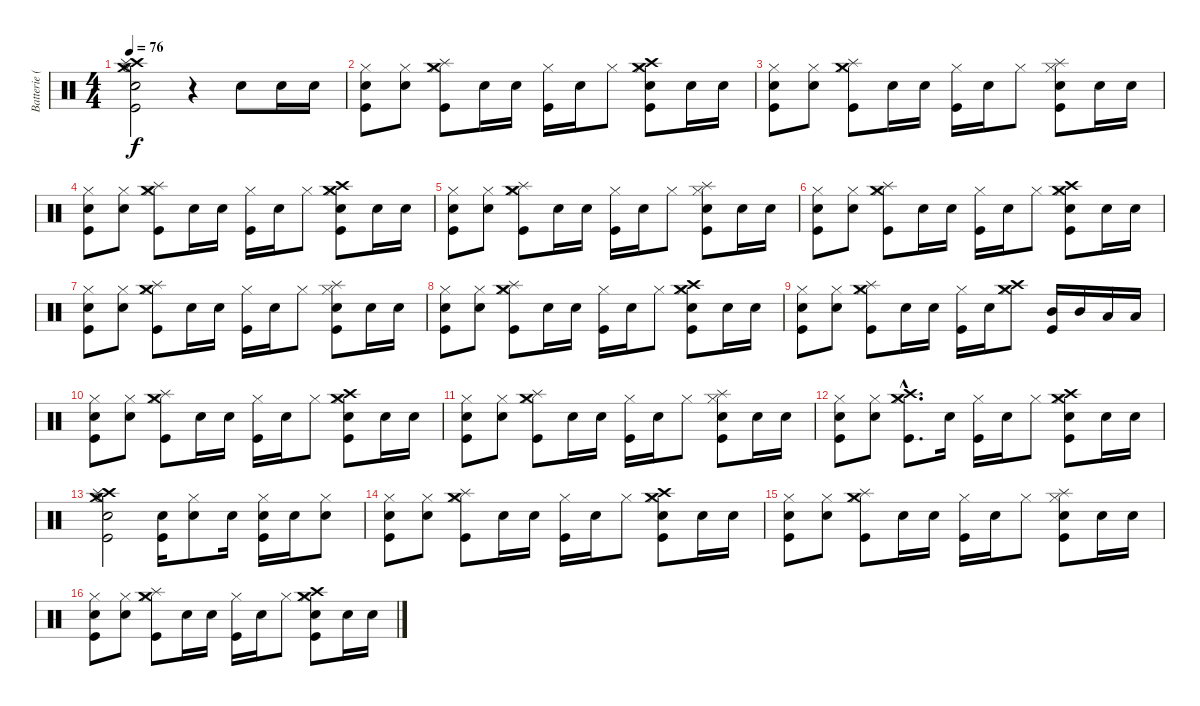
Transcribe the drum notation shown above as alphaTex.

\track ("Batterie (Caroline Corr)" "Batterie (") {instrument percussion}
\staff {score}
\articulation defaults
\ts (4 4)
\tempo 76
\clef neutral
\ks c
("Hi-Hat (open)" "Crash medium (hit)" "Crash high (hit)" "Snare (hit) 2" "Splash (hit)" "Kick (hit)").2{dy f} r.4 "Snare (hit) 2".8 "Snare (hit) 2".16 "Snare (hit) 2".16 |
("Hi-Hat (closed)" "Snare (hit) 2" "Kick (hit)").8 ("Hi-Hat (closed)" "Snare (hit) 2").8 ("Hi-Hat (closed)" "Splash (hit)" "Crash medium (hit)" "Kick (hit)").8 "Snare (hit) 2".16 "Snare (hit) 2".16 ("Hi-Hat (closed)" "Kick (hit)").16 "Snare (hit) 2".16 "Hi-Hat (closed)".8 ("Hi-Hat (closed)" "Snare (hit) 2" "Crash high (hit)" "Crash medium (hit)" "Kick (hit)").8 "Snare (hit) 2".16 "Snare (hit) 2".16 |
("Hi-Hat (closed)" "Snare (hit) 2" "Kick (hit)").8 ("Hi-Hat (closed)" "Snare (hit) 2").8 ("Hi-Hat (closed)" "Splash (hit)" "Crash medium (hit)" "Kick (hit)").8 "Snare (hit) 2".16 "Snare (hit) 2".16 ("Hi-Hat (closed)" "Kick (hit)").16 "Snare (hit) 2".16 "Hi-Hat (closed)".8 ("Hi-Hat (closed)" "Snare (hit) 2" "Splash (hit)" "Kick (hit)").8 "Snare (hit) 2".16 "Snare (hit) 2".16 |
("Hi-Hat (closed)" "Snare (hit) 2" "Kick (hit)").8 ("Hi-Hat (closed)" "Snare (hit) 2").8 ("Hi-Hat (closed)" "Splash (hit)" "Crash medium (hit)" "Kick (hit)").8 "Snare (hit) 2".16 "Snare (hit) 2".16 ("Hi-Hat (closed)" "Kick (hit)").16 "Snare (hit) 2".16 "Hi-Hat (closed)".8 ("Hi-Hat (closed)" "Snare (hit) 2" "Crash high (hit)" "Crash medium (hit)" "Kick (hit)").8 "Snare (hit) 2".16 "Snare (hit) 2".16 |
("Hi-Hat (closed)" "Snare (hit) 2" "Kick (hit)").8 ("Hi-Hat (closed)" "Snare (hit) 2").8 ("Hi-Hat (closed)" "Splash (hit)" "Crash medium (hit)" "Kick (hit)").8 "Snare (hit) 2".16 "Snare (hit) 2".16 ("Hi-Hat (closed)" "Kick (hit)").16 "Snare (hit) 2".16 "Hi-Hat (closed)".8 ("Hi-Hat (closed)" "Snare (hit) 2" "Splash (hit)" "Kick (hit)").8 "Snare (hit) 2".16 "Snare (hit) 2".16 |
("Hi-Hat (closed)" "Snare (hit) 2" "Kick (hit)").8 ("Hi-Hat (closed)" "Snare (hit) 2").8 ("Hi-Hat (closed)" "Splash (hit)" "Crash medium (hit)" "Kick (hit)").8 "Snare (hit) 2".16 "Snare (hit) 2".16 ("Hi-Hat (closed)" "Kick (hit)").16 "Snare (hit) 2".16 "Hi-Hat (closed)".8 ("Hi-Hat (closed)" "Snare (hit) 2" "Crash high (hit)" "Crash medium (hit)" "Kick (hit)").8 "Snare (hit) 2".16 "Snare (hit) 2".16 |
("Hi-Hat (closed)" "Snare (hit) 2" "Kick (hit)").8 ("Hi-Hat (closed)" "Snare (hit) 2").8 ("Hi-Hat (closed)" "Splash (hit)" "Crash medium (hit)" "Kick (hit)").8 "Snare (hit) 2".16 "Snare (hit) 2".16 ("Hi-Hat (closed)" "Kick (hit)").16 "Snare (hit) 2".16 "Hi-Hat (closed)".8 ("Hi-Hat (closed)" "Snare (hit) 2" "Splash (hit)" "Kick (hit)").8 "Snare (hit) 2".16 "Snare (hit) 2".16 |
("Hi-Hat (closed)" "Snare (hit) 2" "Kick (hit)").8 ("Hi-Hat (closed)" "Snare (hit) 2").8 ("Hi-Hat (closed)" "Splash (hit)" "Crash medium (hit)" "Kick (hit)").8 "Snare (hit) 2".16 "Snare (hit) 2".16 ("Hi-Hat (closed)" "Kick (hit)").16 "Snare (hit) 2".16 "Hi-Hat (closed)".8 ("Hi-Hat (closed)" "Snare (hit) 2" "Crash high (hit)" "Crash medium (hit)" "Kick (hit)").8 "Snare (hit) 2".16 "Snare (hit) 2".16 |
("Hi-Hat (closed)" "Snare (hit) 2" "Kick (hit)").8 ("Hi-Hat (closed)" "Snare (hit) 2").8 ("Hi-Hat (closed)" "Splash (hit)" "Crash medium (hit)" "Kick (hit)").8 "Snare (hit) 2".16 "Snare (hit) 2".16 ("Hi-Hat (closed)" "Kick (hit)").16 "Snare (hit) 2".16 ("Hi-Hat (closed)" "Crash medium (hit)" "Crash high (hit)").8 ("Mid Tom (hit)" "Kick (hit)").16 "Mid Tom (hit)".16 "Low Tom (hit)".16 "Low Tom (hit)".16 |
("Hi-Hat (closed)" "Snare (hit) 2" "Kick (hit)").8 ("Hi-Hat (closed)" "Snare (hit) 2").8 ("Hi-Hat (closed)" "Splash (hit)" "Crash medium (hit)" "Kick (hit)").8 "Snare (hit) 2".16 "Snare (hit) 2".16 ("Hi-Hat (closed)" "Kick (hit)").16 "Snare (hit) 2".16 "Hi-Hat (closed)".8 ("Hi-Hat (closed)" "Snare (hit) 2" "Crash high (hit)" "Crash medium (hit)" "Kick (hit)").8 "Snare (hit) 2".16 "Snare (hit) 2".16 |
("Hi-Hat (closed)" "Snare (hit) 2" "Kick (hit)").8 ("Hi-Hat (closed)" "Snare (hit) 2").8 ("Hi-Hat (closed)" "Splash (hit)" "Crash medium (hit)" "Kick (hit)").8 "Snare (hit) 2".16 "Snare (hit) 2".16 ("Hi-Hat (closed)" "Kick (hit)").16 "Snare (hit) 2".16 "Hi-Hat (closed)".8 ("Hi-Hat (closed)" "Snare (hit) 2" "Splash (hit)" "Kick (hit)").8 "Snare (hit) 2".16 "Snare (hit) 2".16 |
("Hi-Hat (closed)" "Snare (hit) 2" "Kick (hit)").8 ("Hi-Hat (closed)" "Snare (hit) 2").8 ("Hi-Hat (closed)"{hac} "Crash high (hit)"{hac} "Crash medium (hit)"{hac} "Kick (hit)"{hac}).8{d} "Snare (hit) 2".16 ("Hi-Hat (closed)" "Kick (hit)").16 "Snare (hit) 2".16 "Hi-Hat (closed)".8 ("Hi-Hat (closed)" "Snare (hit) 2" "Crash high (hit)" "Crash medium (hit)" "Kick (hit)").8 "Snare (hit) 2".16 "Snare (hit) 2".16 |
("Hi-Hat (open)" "Crash medium (hit)" "Crash high (hit)" "Snare (hit) 2" "Splash (hit)" "Kick (hit)").2 ("Snare (hit) 2" "Kick (hit)").16 ("Hi-Hat (closed)" "Snare (hit) 2").8 "Snare (hit) 2".16 ("Hi-Hat (closed)" "Snare (hit) 2" "Kick (hit)").16 "Snare (hit) 2".16 ("Hi-Hat (closed)" "Snare (hit) 2").8 |
("Hi-Hat (closed)" "Snare (hit) 2" "Kick (hit)").8 ("Hi-Hat (closed)" "Snare (hit) 2").8 ("Hi-Hat (closed)" "Splash (hit)" "Crash medium (hit)" "Kick (hit)").8 "Snare (hit) 2".16 "Snare (hit) 2".16 ("Hi-Hat (closed)" "Kick (hit)").16 "Snare (hit) 2".16 "Hi-Hat (closed)".8 ("Hi-Hat (closed)" "Snare (hit) 2" "Crash high (hit)" "Crash medium (hit)" "Kick (hit)").8 "Snare (hit) 2".16 "Snare (hit) 2".16 |
("Hi-Hat (closed)" "Snare (hit) 2" "Kick (hit)").8 ("Hi-Hat (closed)" "Snare (hit) 2").8 ("Hi-Hat (closed)" "Splash (hit)" "Crash medium (hit)" "Kick (hit)").8 "Snare (hit) 2".16 "Snare (hit) 2".16 ("Hi-Hat (closed)" "Kick (hit)").16 "Snare (hit) 2".16 "Hi-Hat (closed)".8 ("Hi-Hat (closed)" "Snare (hit) 2" "Splash (hit)" "Kick (hit)").8 "Snare (hit) 2".16 "Snare (hit) 2".16 |
("Hi-Hat (closed)" "Snare (hit) 2" "Kick (hit)").8 ("Hi-Hat (closed)" "Snare (hit) 2").8 ("Hi-Hat (closed)" "Splash (hit)" "Crash medium (hit)" "Kick (hit)").8 "Snare (hit) 2".16 "Snare (hit) 2".16 ("Hi-Hat (closed)" "Kick (hit)").16 "Snare (hit) 2".16 "Hi-Hat (closed)".8 ("Hi-Hat (closed)" "Snare (hit) 2" "Crash high (hit)" "Crash medium (hit)" "Kick (hit)").8 "Snare (hit) 2".16 "Snare (hit) 2".16
